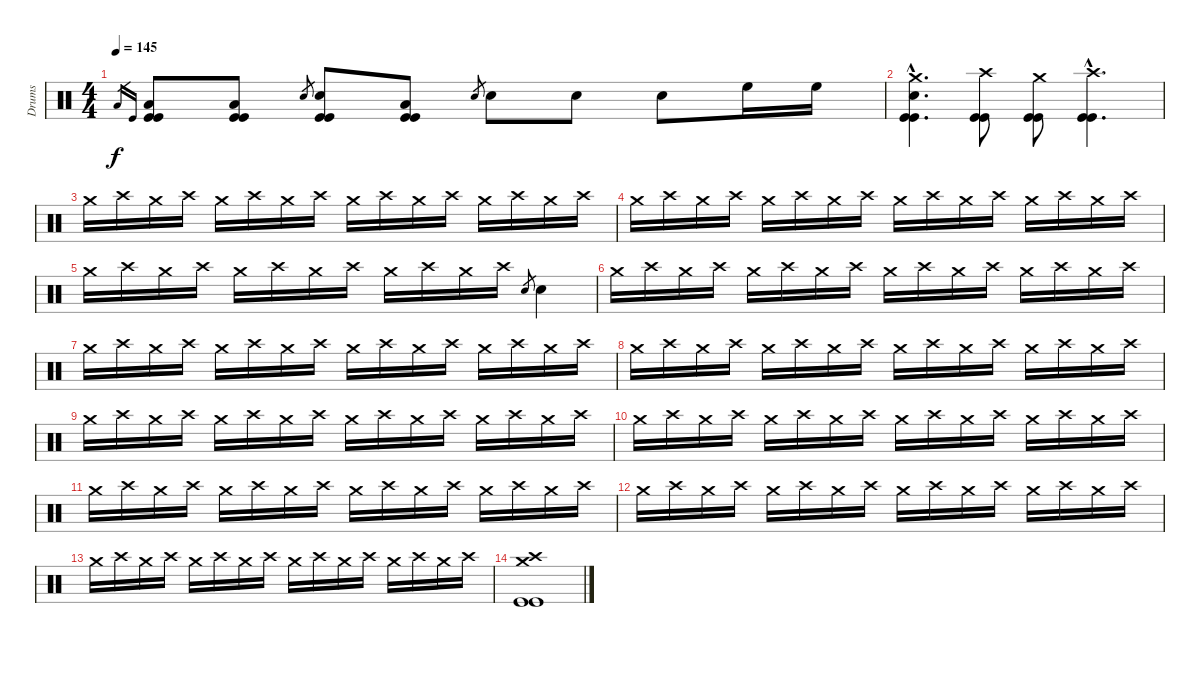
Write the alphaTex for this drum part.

\track ("Drums" "Drums") {instrument percussion}
\staff {score}
\articulation defaults
\ts (4 4)
\tempo 145
\clef neutral
\ks c "Low Floor Tom (hit)".16{gr dy f} "Kick (hit)".16{gr}
("Low Floor Tom (hit)" "Kick (hit)" "Kick (hit)").8 ("Low Floor Tom (hit)" "Kick (hit)" "Kick (hit)").8 "Electric Snare (hit)".8{gr} ("Electric Snare (hit)" "Kick (hit)" "Kick (hit)").8 ("Low Floor Tom (hit)" "Kick (hit)" "Kick (hit)").8 "Electric Snare (hit)".8{gr} "Electric Snare (hit)".8 "Electric Snare (hit)".8 "Electric Snare (hit)".8 "High Floor Tom (hit)".16 "High Floor Tom (hit)".16 |
("Crash medium (hit)"{hac} "Electric Snare (hit)"{hac} "Kick (hit)"{hac} "Kick (hit)"{hac}).4{d} ("Crash high (hit)" "Kick (hit)" "Kick (hit)").8 ("Crash medium (hit)" "Kick (hit)" "Kick (hit)").8 ("Crash high (hit)"{hac} "Kick (hit)"{hac} "Kick (hit)"{hac}).4{d} |
"Crash medium (hit)".16 "Crash high (hit)".16 "Crash medium (hit)".16 "Crash high (hit)".16 "Crash medium (hit)".16 "Crash high (hit)".16 "Crash medium (hit)".16 "Crash high (hit)".16 "Crash medium (hit)".16 "Crash high (hit)".16 "Crash medium (hit)".16 "Crash high (hit)".16 "Crash medium (hit)".16 "Crash high (hit)".16 "Crash medium (hit)".16 "Crash high (hit)".16 |
"Crash medium (hit)".16 "Crash high (hit)".16 "Crash medium (hit)".16 "Crash high (hit)".16 "Crash medium (hit)".16 "Crash high (hit)".16 "Crash medium (hit)".16 "Crash high (hit)".16 "Crash medium (hit)".16 "Crash high (hit)".16 "Crash medium (hit)".16 "Crash high (hit)".16 "Crash medium (hit)".16 "Crash high (hit)".16 "Crash medium (hit)".16 "Crash high (hit)".16 |
"Crash medium (hit)".16 "Crash high (hit)".16 "Crash medium (hit)".16 "Crash high (hit)".16 "Crash medium (hit)".16 "Crash high (hit)".16 "Crash medium (hit)".16 "Crash high (hit)".16 "Crash medium (hit)".16 "Crash high (hit)".16 "Crash medium (hit)".16 "Crash high (hit)".16 "Electric Snare (hit)".8{gr} "Electric Snare (hit)".4 |
"Crash medium (hit)".16 "Crash high (hit)".16 "Crash medium (hit)".16 "Crash high (hit)".16 "Crash medium (hit)".16 "Crash high (hit)".16 "Crash medium (hit)".16 "Crash high (hit)".16 "Crash medium (hit)".16 "Crash high (hit)".16 "Crash medium (hit)".16 "Crash high (hit)".16 "Crash medium (hit)".16 "Crash high (hit)".16 "Crash medium (hit)".16 "Crash high (hit)".16 |
"Crash medium (hit)".16 "Crash high (hit)".16 "Crash medium (hit)".16 "Crash high (hit)".16 "Crash medium (hit)".16 "Crash high (hit)".16 "Crash medium (hit)".16 "Crash high (hit)".16 "Crash medium (hit)".16 "Crash high (hit)".16 "Crash medium (hit)".16 "Crash high (hit)".16 "Crash medium (hit)".16 "Crash high (hit)".16 "Crash medium (hit)".16 "Crash high (hit)".16 |
"Crash medium (hit)".16 "Crash high (hit)".16 "Crash medium (hit)".16 "Crash high (hit)".16 "Crash medium (hit)".16 "Crash high (hit)".16 "Crash medium (hit)".16 "Crash high (hit)".16 "Crash medium (hit)".16 "Crash high (hit)".16 "Crash medium (hit)".16 "Crash high (hit)".16 "Crash medium (hit)".16 "Crash high (hit)".16 "Crash medium (hit)".16 "Crash high (hit)".16 |
"Crash medium (hit)".16 "Crash high (hit)".16 "Crash medium (hit)".16 "Crash high (hit)".16 "Crash medium (hit)".16 "Crash high (hit)".16 "Crash medium (hit)".16 "Crash high (hit)".16 "Crash medium (hit)".16 "Crash high (hit)".16 "Crash medium (hit)".16 "Crash high (hit)".16 "Crash medium (hit)".16 "Crash high (hit)".16 "Crash medium (hit)".16 "Crash high (hit)".16 |
"Crash medium (hit)".16 "Crash high (hit)".16 "Crash medium (hit)".16 "Crash high (hit)".16 "Crash medium (hit)".16 "Crash high (hit)".16 "Crash medium (hit)".16 "Crash high (hit)".16 "Crash medium (hit)".16 "Crash high (hit)".16 "Crash medium (hit)".16 "Crash high (hit)".16 "Crash medium (hit)".16 "Crash high (hit)".16 "Crash medium (hit)".16 "Crash high (hit)".16 |
"Crash medium (hit)".16 "Crash high (hit)".16 "Crash medium (hit)".16 "Crash high (hit)".16 "Crash medium (hit)".16 "Crash high (hit)".16 "Crash medium (hit)".16 "Crash high (hit)".16 "Crash medium (hit)".16 "Crash high (hit)".16 "Crash medium (hit)".16 "Crash high (hit)".16 "Crash medium (hit)".16 "Crash high (hit)".16 "Crash medium (hit)".16 "Crash high (hit)".16 |
"Crash medium (hit)".16 "Crash high (hit)".16 "Crash medium (hit)".16 "Crash high (hit)".16 "Crash medium (hit)".16 "Crash high (hit)".16 "Crash medium (hit)".16 "Crash high (hit)".16 "Crash medium (hit)".16 "Crash high (hit)".16 "Crash medium (hit)".16 "Crash high (hit)".16 "Crash medium (hit)".16 "Crash high (hit)".16 "Crash medium (hit)".16 "Crash high (hit)".16 |
"Crash medium (hit)".16 "Crash high (hit)".16 "Crash medium (hit)".16 "Crash high (hit)".16 "Crash medium (hit)".16 "Crash high (hit)".16 "Crash medium (hit)".16 "Crash high (hit)".16 "Crash medium (hit)".16 "Crash high (hit)".16 "Crash medium (hit)".16 "Crash high (hit)".16 "Crash medium (hit)".16 "Crash high (hit)".16 "Crash medium (hit)".16 "Crash high (hit)".16 |
("Crash high (hit)" "Crash medium (hit)" "Kick (hit)" "Kick (hit)").1
